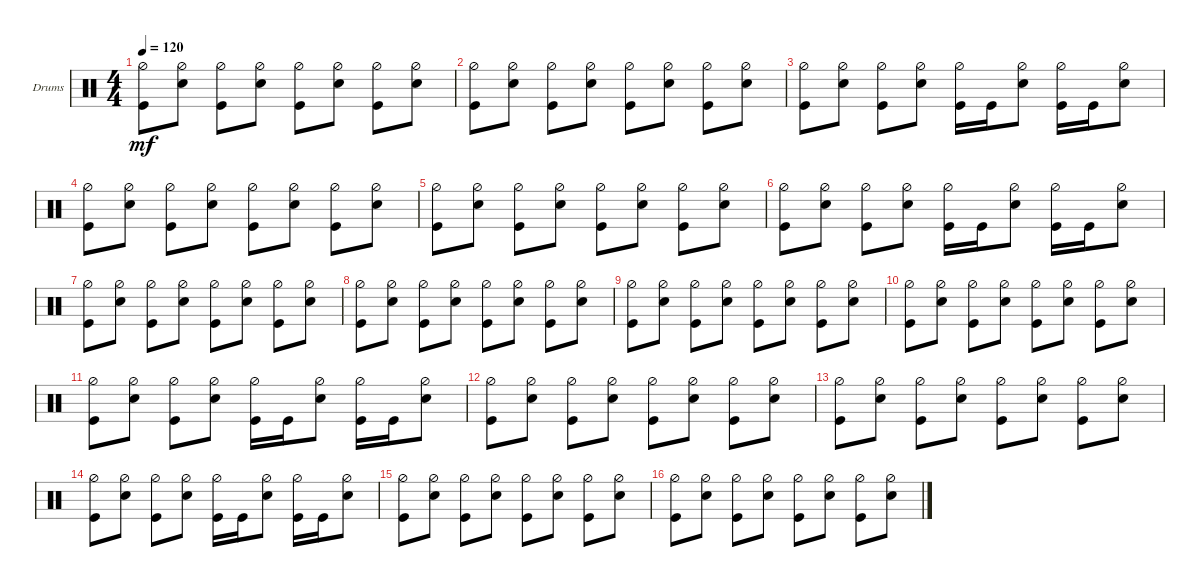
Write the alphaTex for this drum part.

\bracketExtendMode groupsimilarinstruments
\firstSystemTrackNameOrientation horizontal
\otherSystemsTrackNameOrientation horizontal
\track ("Drumkit" "Drums") {solo instrument percussion}
\staff {score}
\articulation defaults
\ts (4 4)
\tempo 120
\clef neutral
\ks c
("Kick (hit)" "Hi-Hat (half)").8{dy mf} ("Snare (hit) 2" "Hi-Hat (half)").8 ("Kick (hit)" "Hi-Hat (half)").8 ("Snare (hit) 2" "Hi-Hat (half)").8 ("Kick (hit)" "Hi-Hat (half)").8 ("Snare (hit) 2" "Hi-Hat (half)").8 ("Kick (hit)" "Hi-Hat (half)").8 ("Snare (hit) 2" "Hi-Hat (half)").8 |
("Kick (hit)" "Hi-Hat (half)").8 ("Snare (hit) 2" "Hi-Hat (half)").8 ("Kick (hit)" "Hi-Hat (half)").8 ("Snare (hit) 2" "Hi-Hat (half)").8 ("Kick (hit)" "Hi-Hat (half)").8 ("Snare (hit) 2" "Hi-Hat (half)").8 ("Kick (hit)" "Hi-Hat (half)").8 ("Snare (hit) 2" "Hi-Hat (half)").8 |
("Kick (hit)" "Hi-Hat (half)").8 ("Snare (hit) 2" "Hi-Hat (half)").8 ("Kick (hit)" "Hi-Hat (half)").8 ("Snare (hit) 2" "Hi-Hat (half)").8 ("Kick (hit)" "Hi-Hat (half)").16 "Kick (hit)".16 ("Snare (hit) 2" "Hi-Hat (half)").8 ("Kick (hit)" "Hi-Hat (half)").16 "Kick (hit)".16 ("Snare (hit) 2" "Hi-Hat (half)").8 |
("Kick (hit)" "Hi-Hat (half)").8 ("Snare (hit) 2" "Hi-Hat (half)").8 ("Kick (hit)" "Hi-Hat (half)").8 ("Snare (hit) 2" "Hi-Hat (half)").8 ("Kick (hit)" "Hi-Hat (half)").8 ("Snare (hit) 2" "Hi-Hat (half)").8 ("Kick (hit)" "Hi-Hat (half)").8 ("Snare (hit) 2" "Hi-Hat (half)").8 |
("Kick (hit)" "Hi-Hat (half)").8 ("Snare (hit) 2" "Hi-Hat (half)").8 ("Kick (hit)" "Hi-Hat (half)").8 ("Snare (hit) 2" "Hi-Hat (half)").8 ("Kick (hit)" "Hi-Hat (half)").8 ("Snare (hit) 2" "Hi-Hat (half)").8 ("Kick (hit)" "Hi-Hat (half)").8 ("Snare (hit) 2" "Hi-Hat (half)").8 |
("Kick (hit)" "Hi-Hat (half)").8 ("Snare (hit) 2" "Hi-Hat (half)").8 ("Kick (hit)" "Hi-Hat (half)").8 ("Snare (hit) 2" "Hi-Hat (half)").8 ("Kick (hit)" "Hi-Hat (half)").16 "Kick (hit)".16 ("Snare (hit) 2" "Hi-Hat (half)").8 ("Kick (hit)" "Hi-Hat (half)").16 "Kick (hit)".16 ("Snare (hit) 2" "Hi-Hat (half)").8 |
("Kick (hit)" "Hi-Hat (half)").8 ("Snare (hit) 2" "Hi-Hat (half)").8 ("Kick (hit)" "Hi-Hat (half)").8 ("Snare (hit) 2" "Hi-Hat (half)").8 ("Kick (hit)" "Hi-Hat (half)").8 ("Snare (hit) 2" "Hi-Hat (half)").8 ("Kick (hit)" "Hi-Hat (half)").8 ("Snare (hit) 2" "Hi-Hat (half)").8 |
("Kick (hit)" "Hi-Hat (half)").8 ("Snare (hit) 2" "Hi-Hat (half)").8 ("Kick (hit)" "Hi-Hat (half)").8 ("Snare (hit) 2" "Hi-Hat (half)").8 ("Kick (hit)" "Hi-Hat (half)").8 ("Snare (hit) 2" "Hi-Hat (half)").8 ("Kick (hit)" "Hi-Hat (half)").8 ("Snare (hit) 2" "Hi-Hat (half)").8 |
("Kick (hit)" "Hi-Hat (half)").8 ("Snare (hit) 2" "Hi-Hat (half)").8 ("Kick (hit)" "Hi-Hat (half)").8 ("Snare (hit) 2" "Hi-Hat (half)").8 ("Kick (hit)" "Hi-Hat (half)").8 ("Snare (hit) 2" "Hi-Hat (half)").8 ("Kick (hit)" "Hi-Hat (half)").8 ("Snare (hit) 2" "Hi-Hat (half)").8 |
("Kick (hit)" "Hi-Hat (half)").8 ("Snare (hit) 2" "Hi-Hat (half)").8 ("Kick (hit)" "Hi-Hat (half)").8 ("Snare (hit) 2" "Hi-Hat (half)").8 ("Kick (hit)" "Hi-Hat (half)").8 ("Snare (hit) 2" "Hi-Hat (half)").8 ("Kick (hit)" "Hi-Hat (half)").8 ("Snare (hit) 2" "Hi-Hat (half)").8 |
("Kick (hit)" "Hi-Hat (half)").8 ("Snare (hit) 2" "Hi-Hat (half)").8 ("Kick (hit)" "Hi-Hat (half)").8 ("Snare (hit) 2" "Hi-Hat (half)").8 ("Kick (hit)" "Hi-Hat (half)").16 "Kick (hit)".16 ("Snare (hit) 2" "Hi-Hat (half)").8 ("Kick (hit)" "Hi-Hat (half)").16 "Kick (hit)".16 ("Snare (hit) 2" "Hi-Hat (half)").8 |
("Kick (hit)" "Hi-Hat (half)").8 ("Snare (hit) 2" "Hi-Hat (half)").8 ("Kick (hit)" "Hi-Hat (half)").8 ("Snare (hit) 2" "Hi-Hat (half)").8 ("Kick (hit)" "Hi-Hat (half)").8 ("Snare (hit) 2" "Hi-Hat (half)").8 ("Kick (hit)" "Hi-Hat (half)").8 ("Snare (hit) 2" "Hi-Hat (half)").8 |
("Kick (hit)" "Hi-Hat (half)").8 ("Snare (hit) 2" "Hi-Hat (half)").8 ("Kick (hit)" "Hi-Hat (half)").8 ("Snare (hit) 2" "Hi-Hat (half)").8 ("Kick (hit)" "Hi-Hat (half)").8 ("Snare (hit) 2" "Hi-Hat (half)").8 ("Kick (hit)" "Hi-Hat (half)").8 ("Snare (hit) 2" "Hi-Hat (half)").8 |
("Kick (hit)" "Hi-Hat (half)").8 ("Snare (hit) 2" "Hi-Hat (half)").8 ("Kick (hit)" "Hi-Hat (half)").8 ("Snare (hit) 2" "Hi-Hat (half)").8 ("Kick (hit)" "Hi-Hat (half)").16 "Kick (hit)".16 ("Snare (hit) 2" "Hi-Hat (half)").8 ("Kick (hit)" "Hi-Hat (half)").16 "Kick (hit)".16 ("Snare (hit) 2" "Hi-Hat (half)").8 |
("Kick (hit)" "Hi-Hat (half)").8 ("Snare (hit) 2" "Hi-Hat (half)").8 ("Kick (hit)" "Hi-Hat (half)").8 ("Snare (hit) 2" "Hi-Hat (half)").8 ("Kick (hit)" "Hi-Hat (half)").8 ("Snare (hit) 2" "Hi-Hat (half)").8 ("Kick (hit)" "Hi-Hat (half)").8 ("Snare (hit) 2" "Hi-Hat (half)").8 |
("Kick (hit)" "Hi-Hat (half)").8 ("Snare (hit) 2" "Hi-Hat (half)").8 ("Kick (hit)" "Hi-Hat (half)").8 ("Snare (hit) 2" "Hi-Hat (half)").8 ("Kick (hit)" "Hi-Hat (half)").8 ("Snare (hit) 2" "Hi-Hat (half)").8 ("Kick (hit)" "Hi-Hat (half)").8 ("Snare (hit) 2" "Hi-Hat (half)").8
